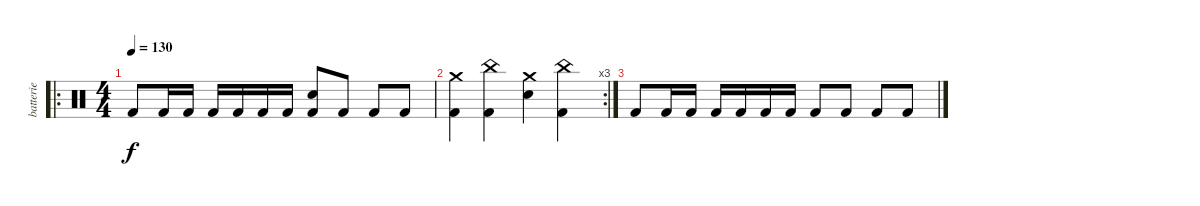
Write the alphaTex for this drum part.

\track ("batterie" "batterie") {instrument percussion}
\staff {score}
\articulation defaults
\ro
\ts (4 4)
\tempo 130
\clef neutral
\ks c "Kick (hit) 2".8{dy f} "Kick (hit) 2".16 "Kick (hit) 2".16 "Kick (hit) 2".16 "Kick (hit) 2".16 "Kick (hit) 2".16 "Kick (hit) 2".16
("Electric Snare (hit)" "Kick (hit) 2").8 "Kick (hit) 2".8 "Kick (hit) 2".8 "Kick (hit) 2".8 |
\rc 3
("Crash medium (hit)" "Kick (hit) 2").4 ("China (hit)" "Kick (hit) 2").4 ("Crash medium (hit)" "Electric Snare (hit)").4 ("China (hit)" "Kick (hit) 2").4 |
"Kick (hit) 2".8 "Kick (hit) 2".16 "Kick (hit) 2".16 "Kick (hit) 2".16 "Kick (hit) 2".16 "Kick (hit) 2".16 "Kick (hit) 2".16 "Kick (hit) 2".8 "Kick (hit) 2".8 "Kick (hit) 2".8 "Kick (hit) 2".8
